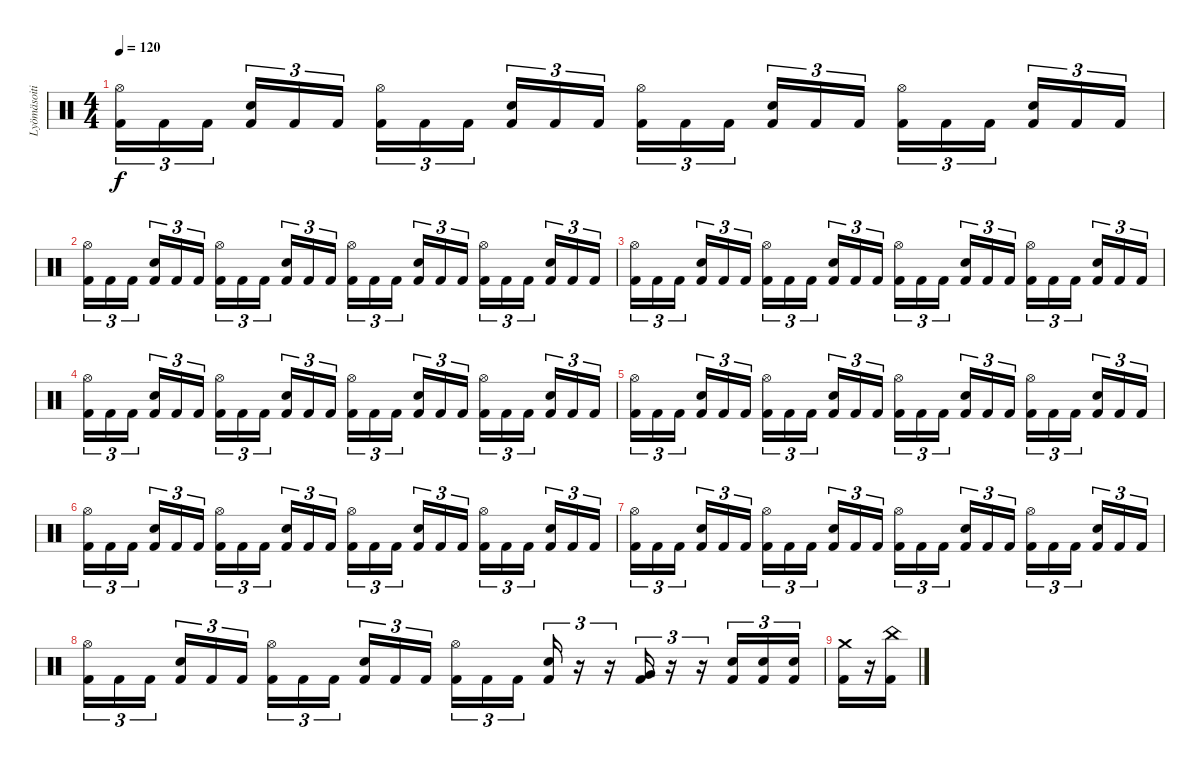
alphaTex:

\track ("Lyömäsoitin" "Lyömäsoiti") {instrument percussion}
\staff {score}
\articulation defaults
\ts (4 4)
\tempo 120
\clef neutral
\ks c
("Hi-Hat (open)" "Kick (hit) 2").16{tu (3 2) dy f} "Kick (hit) 2".16{tu (3 2)} "Kick (hit) 2".16{tu (3 2) beam splitsecondary} ("Electric Snare (hit)" "Kick (hit) 2").16{tu (3 2)} "Kick (hit) 2".16{tu (3 2)} "Kick (hit) 2".16{tu (3 2)} ("Hi-Hat (open)" "Kick (hit) 2").16{tu (3 2)} "Kick (hit) 2".16{tu (3 2)} "Kick (hit) 2".16{tu (3 2) beam splitsecondary} ("Electric Snare (hit)" "Kick (hit) 2").16{tu (3 2)} "Kick (hit) 2".16{tu (3 2)} "Kick (hit) 2".16{tu (3 2)} ("Hi-Hat (open)" "Kick (hit) 2").16{tu (3 2)} "Kick (hit) 2".16{tu (3 2)} "Kick (hit) 2".16{tu (3 2) beam splitsecondary} ("Electric Snare (hit)" "Kick (hit) 2").16{tu (3 2)} "Kick (hit) 2".16{tu (3 2)} "Kick (hit) 2".16{tu (3 2)} ("Hi-Hat (open)" "Kick (hit) 2").16{tu (3 2)} "Kick (hit) 2".16{tu (3 2)} "Kick (hit) 2".16{tu (3 2) beam splitsecondary} ("Electric Snare (hit)" "Kick (hit) 2").16{tu (3 2)} "Kick (hit) 2".16{tu (3 2)} "Kick (hit) 2".16{tu (3 2)} |
("Hi-Hat (open)" "Kick (hit) 2").16{tu (3 2)} "Kick (hit) 2".16{tu (3 2)} "Kick (hit) 2".16{tu (3 2) beam splitsecondary} ("Electric Snare (hit)" "Kick (hit) 2").16{tu (3 2)} "Kick (hit) 2".16{tu (3 2)} "Kick (hit) 2".16{tu (3 2)} ("Hi-Hat (open)" "Kick (hit) 2").16{tu (3 2)} "Kick (hit) 2".16{tu (3 2)} "Kick (hit) 2".16{tu (3 2) beam splitsecondary} ("Electric Snare (hit)" "Kick (hit) 2").16{tu (3 2)} "Kick (hit) 2".16{tu (3 2)} "Kick (hit) 2".16{tu (3 2)} ("Hi-Hat (open)" "Kick (hit) 2").16{tu (3 2)} "Kick (hit) 2".16{tu (3 2)} "Kick (hit) 2".16{tu (3 2) beam splitsecondary} ("Electric Snare (hit)" "Kick (hit) 2").16{tu (3 2)} "Kick (hit) 2".16{tu (3 2)} "Kick (hit) 2".16{tu (3 2)} ("Hi-Hat (open)" "Kick (hit) 2").16{tu (3 2)} "Kick (hit) 2".16{tu (3 2)} "Kick (hit) 2".16{tu (3 2) beam splitsecondary} ("Electric Snare (hit)" "Kick (hit) 2").16{tu (3 2)} "Kick (hit) 2".16{tu (3 2)} "Kick (hit) 2".16{tu (3 2)} |
("Hi-Hat (open)" "Kick (hit) 2").16{tu (3 2)} "Kick (hit) 2".16{tu (3 2)} "Kick (hit) 2".16{tu (3 2) beam splitsecondary} ("Electric Snare (hit)" "Kick (hit) 2").16{tu (3 2)} "Kick (hit) 2".16{tu (3 2)} "Kick (hit) 2".16{tu (3 2)} ("Hi-Hat (open)" "Kick (hit) 2").16{tu (3 2)} "Kick (hit) 2".16{tu (3 2)} "Kick (hit) 2".16{tu (3 2) beam splitsecondary} ("Electric Snare (hit)" "Kick (hit) 2").16{tu (3 2)} "Kick (hit) 2".16{tu (3 2)} "Kick (hit) 2".16{tu (3 2)} ("Hi-Hat (open)" "Kick (hit) 2").16{tu (3 2)} "Kick (hit) 2".16{tu (3 2)} "Kick (hit) 2".16{tu (3 2) beam splitsecondary} ("Electric Snare (hit)" "Kick (hit) 2").16{tu (3 2)} "Kick (hit) 2".16{tu (3 2)} "Kick (hit) 2".16{tu (3 2)} ("Hi-Hat (open)" "Kick (hit) 2").16{tu (3 2)} "Kick (hit) 2".16{tu (3 2)} "Kick (hit) 2".16{tu (3 2) beam splitsecondary} ("Electric Snare (hit)" "Kick (hit) 2").16{tu (3 2)} "Kick (hit) 2".16{tu (3 2)} "Kick (hit) 2".16{tu (3 2)} |
("Hi-Hat (open)" "Kick (hit) 2").16{tu (3 2)} "Kick (hit) 2".16{tu (3 2)} "Kick (hit) 2".16{tu (3 2) beam splitsecondary} ("Electric Snare (hit)" "Kick (hit) 2").16{tu (3 2)} "Kick (hit) 2".16{tu (3 2)} "Kick (hit) 2".16{tu (3 2)} ("Hi-Hat (open)" "Kick (hit) 2").16{tu (3 2)} "Kick (hit) 2".16{tu (3 2)} "Kick (hit) 2".16{tu (3 2) beam splitsecondary} ("Electric Snare (hit)" "Kick (hit) 2").16{tu (3 2)} "Kick (hit) 2".16{tu (3 2)} "Kick (hit) 2".16{tu (3 2)} ("Hi-Hat (open)" "Kick (hit) 2").16{tu (3 2)} "Kick (hit) 2".16{tu (3 2)} "Kick (hit) 2".16{tu (3 2) beam splitsecondary} ("Electric Snare (hit)" "Kick (hit) 2").16{tu (3 2)} "Kick (hit) 2".16{tu (3 2)} "Kick (hit) 2".16{tu (3 2)} ("Hi-Hat (open)" "Kick (hit) 2").16{tu (3 2)} "Kick (hit) 2".16{tu (3 2)} "Kick (hit) 2".16{tu (3 2) beam splitsecondary} ("Electric Snare (hit)" "Kick (hit) 2").16{tu (3 2)} "Kick (hit) 2".16{tu (3 2)} "Kick (hit) 2".16{tu (3 2)} |
("Hi-Hat (open)" "Kick (hit) 2").16{tu (3 2)} "Kick (hit) 2".16{tu (3 2)} "Kick (hit) 2".16{tu (3 2) beam splitsecondary} ("Electric Snare (hit)" "Kick (hit) 2").16{tu (3 2)} "Kick (hit) 2".16{tu (3 2)} "Kick (hit) 2".16{tu (3 2)} ("Hi-Hat (open)" "Kick (hit) 2").16{tu (3 2)} "Kick (hit) 2".16{tu (3 2)} "Kick (hit) 2".16{tu (3 2) beam splitsecondary} ("Electric Snare (hit)" "Kick (hit) 2").16{tu (3 2)} "Kick (hit) 2".16{tu (3 2)} "Kick (hit) 2".16{tu (3 2)} ("Hi-Hat (open)" "Kick (hit) 2").16{tu (3 2)} "Kick (hit) 2".16{tu (3 2)} "Kick (hit) 2".16{tu (3 2) beam splitsecondary} ("Electric Snare (hit)" "Kick (hit) 2").16{tu (3 2)} "Kick (hit) 2".16{tu (3 2)} "Kick (hit) 2".16{tu (3 2)} ("Hi-Hat (open)" "Kick (hit) 2").16{tu (3 2)} "Kick (hit) 2".16{tu (3 2)} "Kick (hit) 2".16{tu (3 2) beam splitsecondary} ("Electric Snare (hit)" "Kick (hit) 2").16{tu (3 2)} "Kick (hit) 2".16{tu (3 2)} "Kick (hit) 2".16{tu (3 2)} |
("Hi-Hat (open)" "Kick (hit) 2").16{tu (3 2)} "Kick (hit) 2".16{tu (3 2)} "Kick (hit) 2".16{tu (3 2) beam splitsecondary} ("Electric Snare (hit)" "Kick (hit) 2").16{tu (3 2)} "Kick (hit) 2".16{tu (3 2)} "Kick (hit) 2".16{tu (3 2)} ("Hi-Hat (open)" "Kick (hit) 2").16{tu (3 2)} "Kick (hit) 2".16{tu (3 2)} "Kick (hit) 2".16{tu (3 2) beam splitsecondary} ("Electric Snare (hit)" "Kick (hit) 2").16{tu (3 2)} "Kick (hit) 2".16{tu (3 2)} "Kick (hit) 2".16{tu (3 2)} ("Hi-Hat (open)" "Kick (hit) 2").16{tu (3 2)} "Kick (hit) 2".16{tu (3 2)} "Kick (hit) 2".16{tu (3 2) beam splitsecondary} ("Electric Snare (hit)" "Kick (hit) 2").16{tu (3 2)} "Kick (hit) 2".16{tu (3 2)} "Kick (hit) 2".16{tu (3 2)} ("Hi-Hat (open)" "Kick (hit) 2").16{tu (3 2)} "Kick (hit) 2".16{tu (3 2)} "Kick (hit) 2".16{tu (3 2) beam splitsecondary} ("Electric Snare (hit)" "Kick (hit) 2").16{tu (3 2)} "Kick (hit) 2".16{tu (3 2)} "Kick (hit) 2".16{tu (3 2)} |
("Hi-Hat (open)" "Kick (hit) 2").16{tu (3 2)} "Kick (hit) 2".16{tu (3 2)} "Kick (hit) 2".16{tu (3 2) beam splitsecondary} ("Electric Snare (hit)" "Kick (hit) 2").16{tu (3 2)} "Kick (hit) 2".16{tu (3 2)} "Kick (hit) 2".16{tu (3 2)} ("Hi-Hat (open)" "Kick (hit) 2").16{tu (3 2)} "Kick (hit) 2".16{tu (3 2)} "Kick (hit) 2".16{tu (3 2) beam splitsecondary} ("Electric Snare (hit)" "Kick (hit) 2").16{tu (3 2)} "Kick (hit) 2".16{tu (3 2)} "Kick (hit) 2".16{tu (3 2)} ("Hi-Hat (open)" "Kick (hit) 2").16{tu (3 2)} "Kick (hit) 2".16{tu (3 2)} "Kick (hit) 2".16{tu (3 2) beam splitsecondary} ("Electric Snare (hit)" "Kick (hit) 2").16{tu (3 2)} "Kick (hit) 2".16{tu (3 2)} "Kick (hit) 2".16{tu (3 2)} ("Hi-Hat (open)" "Kick (hit) 2").16{tu (3 2)} "Kick (hit) 2".16{tu (3 2)} "Kick (hit) 2".16{tu (3 2) beam splitsecondary} ("Electric Snare (hit)" "Kick (hit) 2").16{tu (3 2)} "Kick (hit) 2".16{tu (3 2)} "Kick (hit) 2".16{tu (3 2)} |
("Hi-Hat (open)" "Kick (hit) 2").16{tu (3 2)} "Kick (hit) 2".16{tu (3 2)} "Kick (hit) 2".16{tu (3 2) beam splitsecondary} ("Electric Snare (hit)" "Kick (hit) 2").16{tu (3 2)} "Kick (hit) 2".16{tu (3 2)} "Kick (hit) 2".16{tu (3 2)} ("Hi-Hat (open)" "Kick (hit) 2").16{tu (3 2)} "Kick (hit) 2".16{tu (3 2)} "Kick (hit) 2".16{tu (3 2) beam splitsecondary} ("Electric Snare (hit)" "Kick (hit) 2").16{tu (3 2)} "Kick (hit) 2".16{tu (3 2)} "Kick (hit) 2".16{tu (3 2)} ("Hi-Hat (open)" "Kick (hit) 2").16{tu (3 2)} "Kick (hit) 2".16{tu (3 2)} "Kick (hit) 2".16{tu (3 2) beam splitsecondary} ("Electric Snare (hit)" "Kick (hit) 2").16{tu (3 2)} r.16{tu (3 2)} r.16{tu (3 2)} ("Very Low Tom (hit)" "Kick (hit) 2").16{tu (3 2)} r.16{tu (3 2)} r.16{tu (3 2)} ("Electric Snare (hit)" "Kick (hit) 2").16{tu (3 2)} ("Kick (hit) 2" "Electric Snare (hit)").16{tu (3 2)} ("Kick (hit) 2" "Electric Snare (hit)").16{tu (3 2)} |
("Crash medium (hit)" "Kick (hit) 2").16 r.16 ("China (hit)" "Kick (hit) 2").16
